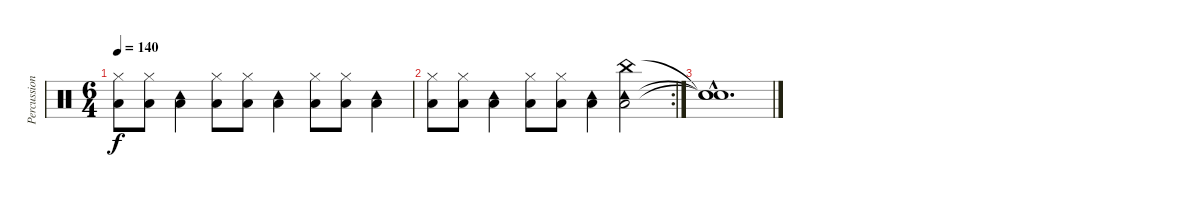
\track ("Percussion" "Percussion") {instrument percussion}
\staff {score}
\articulation defaults
\ts (6 4)
\tempo 140
\clef neutral
\ks c
("Low Floor Tom (hit)" "Hi-Hat (closed)").8{dy f} ("Low Floor Tom (hit)" "Hi-Hat (closed)").8 ("Low Floor Tom (hit)" "Tambourine (hit)").4 ("Low Floor Tom (hit)" "Hi-Hat (closed)").8 ("Low Floor Tom (hit)" "Hi-Hat (closed)").8 ("Low Floor Tom (hit)" "Tambourine (hit)").4 ("Low Floor Tom (hit)" "Hi-Hat (closed)").8 ("Low Floor Tom (hit)" "Hi-Hat (closed)").8 ("Low Floor Tom (hit)" "Tambourine (hit)").4 |
\rc 2
("Low Floor Tom (hit)" "Hi-Hat (closed)").8 ("Low Floor Tom (hit)" "Hi-Hat (closed)").8 ("Low Floor Tom (hit)" "Tambourine (hit)").4 ("Low Floor Tom (hit)" "Hi-Hat (closed)").8 ("Low Floor Tom (hit)" "Hi-Hat (closed)").8 ("Low Floor Tom (hit)" "Tambourine (hit)").4 ("Low Floor Tom (hit)" "Tambourine (hit)" "China (hit)").2 |
("Snare (hit)"{hac t} "Snare (hit)"{hac t} "Snare (hit)"{hac t}).1{d}
